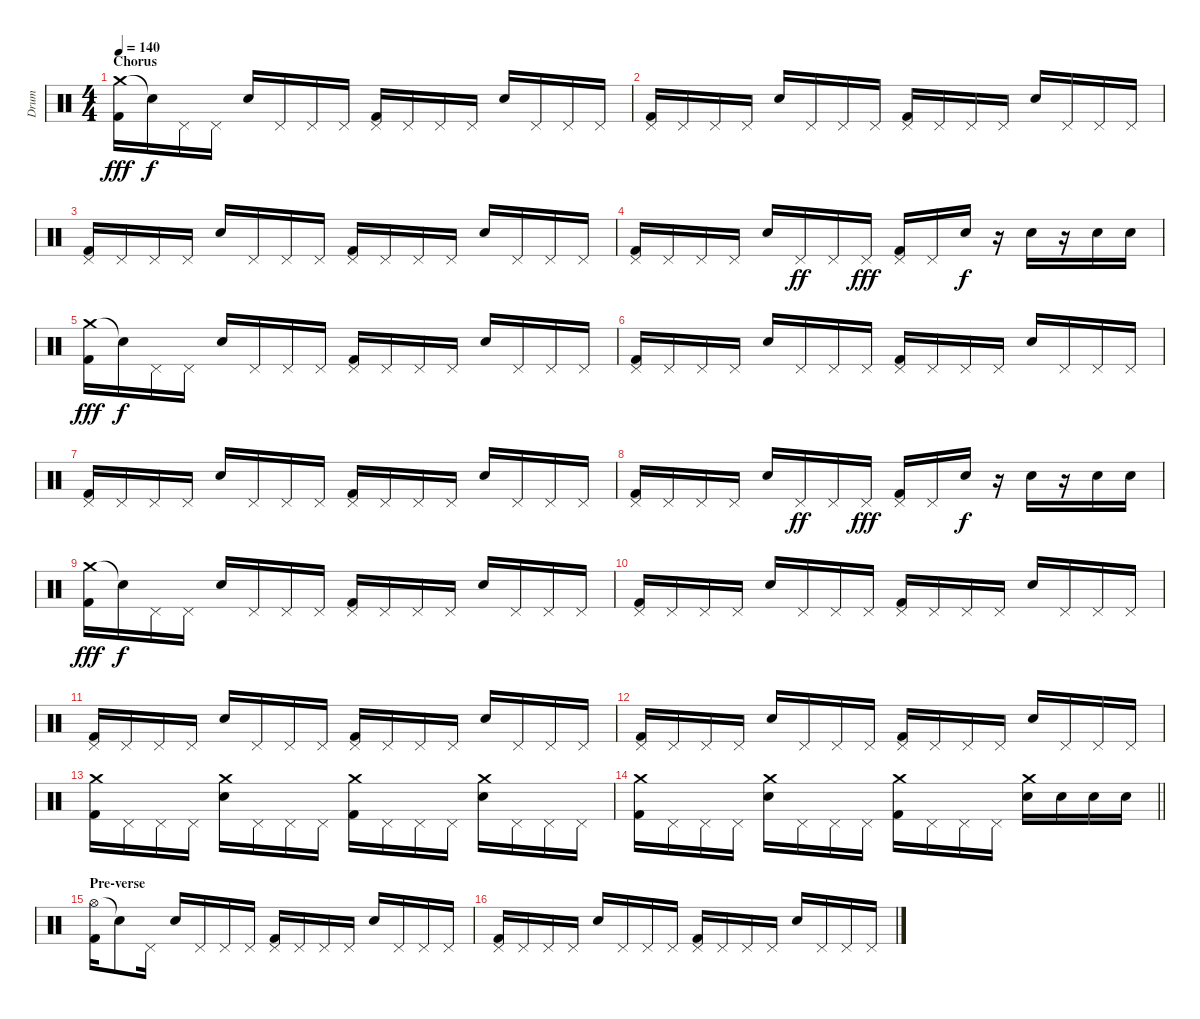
\track ("Drum" "Drum") {instrument percussion}
\staff {score}
\articulation defaults
\ts (4 4)
\section ("" "Chorus")
\tempo 140
\clef neutral
\ks c
("Crash medium (hit)" "Kick (hit) 2").16{dy fff} "Snare (hit)"{t}.16{dy f} "Pedal Hi-Hat (hit)".16 "Pedal Hi-Hat (hit)".16 "Snare (hit) 2".16 "Pedal Hi-Hat (hit)".16 "Pedal Hi-Hat (hit)".16 "Pedal Hi-Hat (hit)".16 ("Pedal Hi-Hat (hit)" "Kick (hit) 2").16 "Pedal Hi-Hat (hit)".16 "Pedal Hi-Hat (hit)".16 "Pedal Hi-Hat (hit)".16 "Snare (hit) 2".16 "Pedal Hi-Hat (hit)".16 "Pedal Hi-Hat (hit)".16 "Pedal Hi-Hat (hit)".16 |
("Pedal Hi-Hat (hit)" "Kick (hit) 2").16 "Pedal Hi-Hat (hit)".16 "Pedal Hi-Hat (hit)".16 "Pedal Hi-Hat (hit)".16 "Snare (hit) 2".16 "Pedal Hi-Hat (hit)".16 "Pedal Hi-Hat (hit)".16 "Pedal Hi-Hat (hit)".16 ("Pedal Hi-Hat (hit)" "Kick (hit) 2").16 "Pedal Hi-Hat (hit)".16 "Pedal Hi-Hat (hit)".16 "Pedal Hi-Hat (hit)".16 "Snare (hit) 2".16 "Pedal Hi-Hat (hit)".16 "Pedal Hi-Hat (hit)".16 "Pedal Hi-Hat (hit)".16 |
("Pedal Hi-Hat (hit)" "Kick (hit) 2").16 "Pedal Hi-Hat (hit)".16 "Pedal Hi-Hat (hit)".16 "Pedal Hi-Hat (hit)".16 "Snare (hit) 2".16 "Pedal Hi-Hat (hit)".16 "Pedal Hi-Hat (hit)".16 "Pedal Hi-Hat (hit)".16 ("Pedal Hi-Hat (hit)" "Kick (hit) 2").16 "Pedal Hi-Hat (hit)".16 "Pedal Hi-Hat (hit)".16 "Pedal Hi-Hat (hit)".16 "Snare (hit) 2".16 "Pedal Hi-Hat (hit)".16 "Pedal Hi-Hat (hit)".16 "Pedal Hi-Hat (hit)".16 |
("Pedal Hi-Hat (hit)" "Kick (hit) 2").16 "Pedal Hi-Hat (hit)".16 "Pedal Hi-Hat (hit)".16 "Pedal Hi-Hat (hit)".16 "Snare (hit) 2".16 "Pedal Hi-Hat (hit)".16{dy ff} "Pedal Hi-Hat (hit)".16 "Pedal Hi-Hat (hit)".16{dy fff} ("Pedal Hi-Hat (hit)" "Kick (hit) 2").16 "Pedal Hi-Hat (hit)".16 "Snare (hit) 2".16{dy f} r.16 "Snare (hit) 2".16 r.16 "Snare (hit) 2".16 "Snare (hit) 2".16 |
("Crash medium (hit)" "Kick (hit) 2").16{dy fff} "Snare (hit)"{t}.16{dy f} "Pedal Hi-Hat (hit)".16 "Pedal Hi-Hat (hit)".16 "Snare (hit) 2".16 "Pedal Hi-Hat (hit)".16 "Pedal Hi-Hat (hit)".16 "Pedal Hi-Hat (hit)".16 ("Pedal Hi-Hat (hit)" "Kick (hit) 2").16 "Pedal Hi-Hat (hit)".16 "Pedal Hi-Hat (hit)".16 "Pedal Hi-Hat (hit)".16 "Snare (hit) 2".16 "Pedal Hi-Hat (hit)".16 "Pedal Hi-Hat (hit)".16 "Pedal Hi-Hat (hit)".16 |
("Pedal Hi-Hat (hit)" "Kick (hit) 2").16 "Pedal Hi-Hat (hit)".16 "Pedal Hi-Hat (hit)".16 "Pedal Hi-Hat (hit)".16 "Snare (hit) 2".16 "Pedal Hi-Hat (hit)".16 "Pedal Hi-Hat (hit)".16 "Pedal Hi-Hat (hit)".16 ("Pedal Hi-Hat (hit)" "Kick (hit) 2").16 "Pedal Hi-Hat (hit)".16 "Pedal Hi-Hat (hit)".16 "Pedal Hi-Hat (hit)".16 "Snare (hit) 2".16 "Pedal Hi-Hat (hit)".16 "Pedal Hi-Hat (hit)".16 "Pedal Hi-Hat (hit)".16 |
("Pedal Hi-Hat (hit)" "Kick (hit) 2").16 "Pedal Hi-Hat (hit)".16 "Pedal Hi-Hat (hit)".16 "Pedal Hi-Hat (hit)".16 "Snare (hit) 2".16 "Pedal Hi-Hat (hit)".16 "Pedal Hi-Hat (hit)".16 "Pedal Hi-Hat (hit)".16 ("Pedal Hi-Hat (hit)" "Kick (hit) 2").16 "Pedal Hi-Hat (hit)".16 "Pedal Hi-Hat (hit)".16 "Pedal Hi-Hat (hit)".16 "Snare (hit) 2".16 "Pedal Hi-Hat (hit)".16 "Pedal Hi-Hat (hit)".16 "Pedal Hi-Hat (hit)".16 |
("Pedal Hi-Hat (hit)" "Kick (hit) 2").16 "Pedal Hi-Hat (hit)".16 "Pedal Hi-Hat (hit)".16 "Pedal Hi-Hat (hit)".16 "Snare (hit) 2".16 "Pedal Hi-Hat (hit)".16{dy ff} "Pedal Hi-Hat (hit)".16 "Pedal Hi-Hat (hit)".16{dy fff} ("Pedal Hi-Hat (hit)" "Kick (hit) 2").16 "Pedal Hi-Hat (hit)".16 "Snare (hit) 2".16{dy f} r.16 "Snare (hit) 2".16 r.16 "Snare (hit) 2".16 "Snare (hit) 2".16 |
("Crash medium (hit)" "Kick (hit) 2").16{dy fff} "Snare (hit)"{t}.16{dy f} "Pedal Hi-Hat (hit)".16 "Pedal Hi-Hat (hit)".16 "Snare (hit) 2".16 "Pedal Hi-Hat (hit)".16 "Pedal Hi-Hat (hit)".16 "Pedal Hi-Hat (hit)".16 ("Pedal Hi-Hat (hit)" "Kick (hit) 2").16 "Pedal Hi-Hat (hit)".16 "Pedal Hi-Hat (hit)".16 "Pedal Hi-Hat (hit)".16 "Snare (hit) 2".16 "Pedal Hi-Hat (hit)".16 "Pedal Hi-Hat (hit)".16 "Pedal Hi-Hat (hit)".16 |
("Pedal Hi-Hat (hit)" "Kick (hit) 2").16 "Pedal Hi-Hat (hit)".16 "Pedal Hi-Hat (hit)".16 "Pedal Hi-Hat (hit)".16 "Snare (hit) 2".16 "Pedal Hi-Hat (hit)".16 "Pedal Hi-Hat (hit)".16 "Pedal Hi-Hat (hit)".16 ("Pedal Hi-Hat (hit)" "Kick (hit) 2").16 "Pedal Hi-Hat (hit)".16 "Pedal Hi-Hat (hit)".16 "Pedal Hi-Hat (hit)".16 "Snare (hit) 2".16 "Pedal Hi-Hat (hit)".16 "Pedal Hi-Hat (hit)".16 "Pedal Hi-Hat (hit)".16 |
("Pedal Hi-Hat (hit)" "Kick (hit) 2").16 "Pedal Hi-Hat (hit)".16 "Pedal Hi-Hat (hit)".16 "Pedal Hi-Hat (hit)".16 "Snare (hit) 2".16 "Pedal Hi-Hat (hit)".16 "Pedal Hi-Hat (hit)".16 "Pedal Hi-Hat (hit)".16 ("Pedal Hi-Hat (hit)" "Kick (hit) 2").16 "Pedal Hi-Hat (hit)".16 "Pedal Hi-Hat (hit)".16 "Pedal Hi-Hat (hit)".16 "Snare (hit) 2".16 "Pedal Hi-Hat (hit)".16 "Pedal Hi-Hat (hit)".16 "Pedal Hi-Hat (hit)".16 |
("Pedal Hi-Hat (hit)" "Kick (hit) 2").16 "Pedal Hi-Hat (hit)".16 "Pedal Hi-Hat (hit)".16 "Pedal Hi-Hat (hit)".16 "Snare (hit) 2".16 "Pedal Hi-Hat (hit)".16 "Pedal Hi-Hat (hit)".16 "Pedal Hi-Hat (hit)".16 ("Pedal Hi-Hat (hit)" "Kick (hit) 2").16 "Pedal Hi-Hat (hit)".16 "Pedal Hi-Hat (hit)".16 "Pedal Hi-Hat (hit)".16 "Snare (hit) 2".16 "Pedal Hi-Hat (hit)".16 "Pedal Hi-Hat (hit)".16 "Pedal Hi-Hat (hit)".16 |
("Crash medium (hit)" "Kick (hit) 2").16 "Pedal Hi-Hat (hit)".16 "Pedal Hi-Hat (hit)".16 "Pedal Hi-Hat (hit)".16 ("Crash medium (hit)" "Snare (hit) 2").16 "Pedal Hi-Hat (hit)".16 "Pedal Hi-Hat (hit)".16 "Pedal Hi-Hat (hit)".16 ("Crash medium (hit)" "Kick (hit) 2").16 "Pedal Hi-Hat (hit)".16 "Pedal Hi-Hat (hit)".16 "Pedal Hi-Hat (hit)".16 ("Crash medium (hit)" "Snare (hit) 2").16 "Pedal Hi-Hat (hit)".16 "Pedal Hi-Hat (hit)".16 "Pedal Hi-Hat (hit)".16 |
\barLineRight lightlight
("Crash medium (hit)" "Kick (hit) 2").16 "Pedal Hi-Hat (hit)".16 "Pedal Hi-Hat (hit)".16 "Pedal Hi-Hat (hit)".16 ("Crash medium (hit)" "Snare (hit) 2").16 "Pedal Hi-Hat (hit)".16 "Pedal Hi-Hat (hit)".16 "Pedal Hi-Hat (hit)".16 ("Crash medium (hit)" "Kick (hit) 2").16 "Pedal Hi-Hat (hit)".16 "Pedal Hi-Hat (hit)".16 "Pedal Hi-Hat (hit)".16 ("Crash medium (hit)" "Snare (hit) 2").16 "Snare (hit) 2".16 "Snare (hit) 2".16 "Snare (hit) 2".16 |
\section ("" "Pre-verse")
("Hi-Hat (open)" "Kick (hit) 2").16 "Snare (hit)"{t}.8 "Pedal Hi-Hat (hit)".16 "Snare (hit) 2".16 "Pedal Hi-Hat (hit)".16 "Pedal Hi-Hat (hit)".16 "Pedal Hi-Hat (hit)".16 ("Pedal Hi-Hat (hit)" "Kick (hit) 2").16 "Pedal Hi-Hat (hit)".16 "Pedal Hi-Hat (hit)".16 "Pedal Hi-Hat (hit)".16 "Snare (hit) 2".16 "Pedal Hi-Hat (hit)".16 "Pedal Hi-Hat (hit)".16 "Pedal Hi-Hat (hit)".16 |
("Pedal Hi-Hat (hit)" "Kick (hit) 2").16 "Pedal Hi-Hat (hit)".16 "Pedal Hi-Hat (hit)".16 "Pedal Hi-Hat (hit)".16 "Snare (hit) 2".16 "Pedal Hi-Hat (hit)".16 "Pedal Hi-Hat (hit)".16 "Pedal Hi-Hat (hit)".16 ("Pedal Hi-Hat (hit)" "Kick (hit) 2").16 "Pedal Hi-Hat (hit)".16 "Pedal Hi-Hat (hit)".16 "Pedal Hi-Hat (hit)".16 "Snare (hit) 2".16 "Pedal Hi-Hat (hit)".16 "Pedal Hi-Hat (hit)".16 "Pedal Hi-Hat (hit)".16
